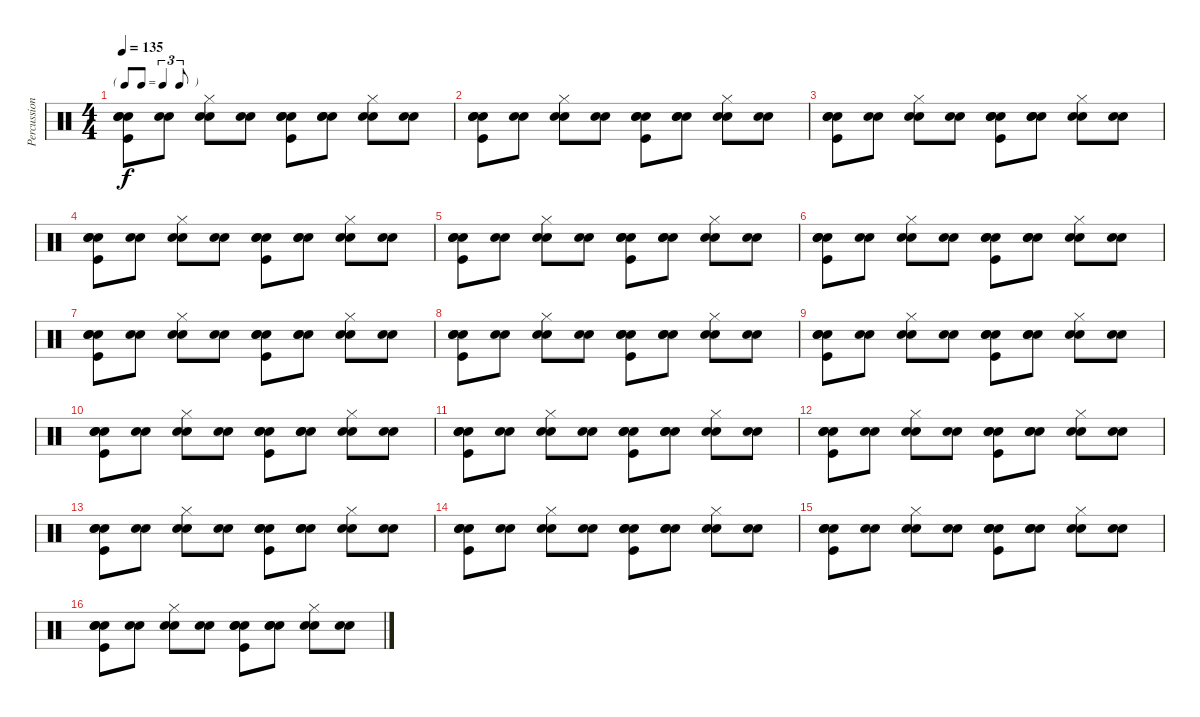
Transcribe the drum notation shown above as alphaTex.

\track ("Percussions" "Percussion") {instrument percussion}
\staff {score}
\articulation defaults
\ts (4 4)
\tf triplet8th
\tempo 135
\clef neutral
\ks c
("Snare (hit)" "Kick (hit)" "Snare (hit) 2" "Electric Snare (hit)").8{dy f} ("Snare (hit)" "Electric Snare (hit)").8 ("Snare (hit)" "Snare (hit) 2" "Hi-Hat (closed)").8 ("Snare (hit)" "Snare (hit) 2").8 ("Snare (hit)" "Kick (hit)" "Snare (hit) 2" "Electric Snare (hit)").8 ("Snare (hit)" "Snare (hit) 2" "Electric Snare (hit)").8 ("Snare (hit)" "Snare (hit) 2" "Hi-Hat (closed)").8 ("Snare (hit)" "Snare (hit) 2").8 |
("Snare (hit)" "Kick (hit)" "Snare (hit) 2" "Electric Snare (hit)").8 ("Snare (hit)" "Electric Snare (hit)").8 ("Snare (hit)" "Snare (hit) 2" "Hi-Hat (closed)").8 ("Snare (hit)" "Snare (hit) 2").8 ("Snare (hit)" "Kick (hit)" "Snare (hit) 2" "Electric Snare (hit)").8 ("Snare (hit)" "Snare (hit) 2" "Electric Snare (hit)").8 ("Snare (hit)" "Snare (hit) 2" "Hi-Hat (closed)").8 ("Snare (hit)" "Snare (hit) 2").8 |
("Snare (hit)" "Kick (hit)" "Snare (hit) 2" "Electric Snare (hit)").8 ("Snare (hit)" "Electric Snare (hit)").8 ("Snare (hit)" "Snare (hit) 2" "Hi-Hat (closed)").8 ("Snare (hit)" "Snare (hit) 2").8 ("Snare (hit)" "Kick (hit)" "Snare (hit) 2" "Electric Snare (hit)").8 ("Snare (hit)" "Snare (hit) 2" "Electric Snare (hit)").8 ("Snare (hit)" "Snare (hit) 2" "Hi-Hat (closed)").8 ("Snare (hit)" "Snare (hit) 2").8 |
("Snare (hit)" "Kick (hit)" "Snare (hit) 2" "Electric Snare (hit)").8 ("Snare (hit)" "Electric Snare (hit)").8 ("Snare (hit)" "Snare (hit) 2" "Hi-Hat (closed)").8 ("Snare (hit)" "Snare (hit) 2").8 ("Snare (hit)" "Kick (hit)" "Snare (hit) 2" "Electric Snare (hit)").8 ("Snare (hit)" "Snare (hit) 2" "Electric Snare (hit)").8 ("Snare (hit)" "Snare (hit) 2" "Hi-Hat (closed)").8 ("Snare (hit)" "Snare (hit) 2").8 |
("Snare (hit)" "Kick (hit)" "Snare (hit) 2" "Electric Snare (hit)").8 ("Snare (hit)" "Electric Snare (hit)").8 ("Snare (hit)" "Snare (hit) 2" "Hi-Hat (closed)").8 ("Snare (hit)" "Snare (hit) 2").8 ("Snare (hit)" "Kick (hit)" "Snare (hit) 2" "Electric Snare (hit)").8 ("Snare (hit)" "Snare (hit) 2" "Electric Snare (hit)").8 ("Snare (hit)" "Snare (hit) 2" "Hi-Hat (closed)").8 ("Snare (hit)" "Snare (hit) 2").8 |
("Snare (hit)" "Kick (hit)" "Snare (hit) 2" "Electric Snare (hit)").8 ("Snare (hit)" "Electric Snare (hit)").8 ("Snare (hit)" "Snare (hit) 2" "Hi-Hat (closed)").8 ("Snare (hit)" "Snare (hit) 2").8 ("Snare (hit)" "Kick (hit)" "Snare (hit) 2" "Electric Snare (hit)").8 ("Snare (hit)" "Snare (hit) 2" "Electric Snare (hit)").8 ("Snare (hit)" "Snare (hit) 2" "Hi-Hat (closed)").8 ("Snare (hit)" "Snare (hit) 2").8 |
("Snare (hit)" "Kick (hit)" "Snare (hit) 2" "Electric Snare (hit)").8 ("Snare (hit)" "Electric Snare (hit)").8 ("Snare (hit)" "Snare (hit) 2" "Hi-Hat (closed)").8 ("Snare (hit)" "Snare (hit) 2").8 ("Snare (hit)" "Kick (hit)" "Snare (hit) 2" "Electric Snare (hit)").8 ("Snare (hit)" "Snare (hit) 2" "Electric Snare (hit)").8 ("Snare (hit)" "Snare (hit) 2" "Hi-Hat (closed)").8 ("Snare (hit)" "Snare (hit) 2").8 |
("Snare (hit)" "Kick (hit)" "Snare (hit) 2" "Electric Snare (hit)").8 ("Snare (hit)" "Electric Snare (hit)").8 ("Snare (hit)" "Snare (hit) 2" "Hi-Hat (closed)").8 ("Snare (hit)" "Snare (hit) 2").8 ("Snare (hit)" "Kick (hit)" "Snare (hit) 2" "Electric Snare (hit)").8 ("Snare (hit)" "Snare (hit) 2" "Electric Snare (hit)").8 ("Snare (hit)" "Snare (hit) 2" "Hi-Hat (closed)").8 ("Snare (hit)" "Snare (hit) 2").8 |
("Snare (hit)" "Kick (hit)" "Snare (hit) 2" "Electric Snare (hit)").8 ("Snare (hit)" "Electric Snare (hit)").8 ("Snare (hit)" "Snare (hit) 2" "Hi-Hat (closed)").8 ("Snare (hit)" "Snare (hit) 2").8 ("Snare (hit)" "Kick (hit)" "Snare (hit) 2" "Electric Snare (hit)").8 ("Snare (hit)" "Snare (hit) 2" "Electric Snare (hit)").8 ("Snare (hit)" "Snare (hit) 2" "Hi-Hat (closed)").8 ("Snare (hit)" "Snare (hit) 2").8 |
("Snare (hit)" "Kick (hit)" "Snare (hit) 2" "Electric Snare (hit)").8 ("Snare (hit)" "Electric Snare (hit)").8 ("Snare (hit)" "Snare (hit) 2" "Hi-Hat (closed)").8 ("Snare (hit)" "Snare (hit) 2").8 ("Snare (hit)" "Kick (hit)" "Snare (hit) 2" "Electric Snare (hit)").8 ("Snare (hit)" "Snare (hit) 2" "Electric Snare (hit)").8 ("Snare (hit)" "Snare (hit) 2" "Hi-Hat (closed)").8 ("Snare (hit)" "Snare (hit) 2").8 |
("Snare (hit)" "Kick (hit)" "Snare (hit) 2" "Electric Snare (hit)").8 ("Snare (hit)" "Electric Snare (hit)").8 ("Snare (hit)" "Snare (hit) 2" "Hi-Hat (closed)").8 ("Snare (hit)" "Snare (hit) 2").8 ("Snare (hit)" "Kick (hit)" "Snare (hit) 2" "Electric Snare (hit)").8 ("Snare (hit)" "Snare (hit) 2" "Electric Snare (hit)").8 ("Snare (hit)" "Snare (hit) 2" "Hi-Hat (closed)").8 ("Snare (hit)" "Snare (hit) 2").8 |
("Snare (hit)" "Kick (hit)" "Snare (hit) 2" "Electric Snare (hit)").8 ("Snare (hit)" "Electric Snare (hit)").8 ("Snare (hit)" "Snare (hit) 2" "Hi-Hat (closed)").8 ("Snare (hit)" "Snare (hit) 2").8 ("Snare (hit)" "Kick (hit)" "Snare (hit) 2" "Electric Snare (hit)").8 ("Snare (hit)" "Snare (hit) 2" "Electric Snare (hit)").8 ("Snare (hit)" "Snare (hit) 2" "Hi-Hat (closed)").8 ("Snare (hit)" "Snare (hit) 2").8 |
("Snare (hit)" "Kick (hit)" "Snare (hit) 2" "Electric Snare (hit)").8 ("Snare (hit)" "Electric Snare (hit)").8 ("Snare (hit)" "Snare (hit) 2" "Hi-Hat (closed)").8 ("Snare (hit)" "Snare (hit) 2").8 ("Snare (hit)" "Kick (hit)" "Snare (hit) 2" "Electric Snare (hit)").8 ("Snare (hit)" "Snare (hit) 2" "Electric Snare (hit)").8 ("Snare (hit)" "Snare (hit) 2" "Hi-Hat (closed)").8 ("Snare (hit)" "Snare (hit) 2").8 |
("Snare (hit)" "Kick (hit)" "Snare (hit) 2" "Electric Snare (hit)").8 ("Snare (hit)" "Electric Snare (hit)").8 ("Snare (hit)" "Snare (hit) 2" "Hi-Hat (closed)").8 ("Snare (hit)" "Snare (hit) 2").8 ("Snare (hit)" "Kick (hit)" "Snare (hit) 2" "Electric Snare (hit)").8 ("Snare (hit)" "Snare (hit) 2" "Electric Snare (hit)").8 ("Snare (hit)" "Snare (hit) 2" "Hi-Hat (closed)").8 ("Snare (hit)" "Snare (hit) 2").8 |
("Snare (hit)" "Kick (hit)" "Snare (hit) 2" "Electric Snare (hit)").8 ("Snare (hit)" "Electric Snare (hit)").8 ("Snare (hit)" "Snare (hit) 2" "Hi-Hat (closed)").8 ("Snare (hit)" "Snare (hit) 2").8 ("Snare (hit)" "Kick (hit)" "Snare (hit) 2" "Electric Snare (hit)").8 ("Snare (hit)" "Snare (hit) 2" "Electric Snare (hit)").8 ("Snare (hit)" "Snare (hit) 2" "Hi-Hat (closed)").8 ("Snare (hit)" "Snare (hit) 2").8 |
("Snare (hit)" "Kick (hit)" "Snare (hit) 2" "Electric Snare (hit)").8 ("Snare (hit)" "Electric Snare (hit)").8 ("Snare (hit)" "Snare (hit) 2" "Hi-Hat (closed)").8 ("Snare (hit)" "Snare (hit) 2").8 ("Snare (hit)" "Kick (hit)" "Snare (hit) 2" "Electric Snare (hit)").8 ("Snare (hit)" "Snare (hit) 2" "Electric Snare (hit)").8 ("Snare (hit)" "Snare (hit) 2" "Hi-Hat (closed)").8 ("Snare (hit)" "Snare (hit) 2").8
